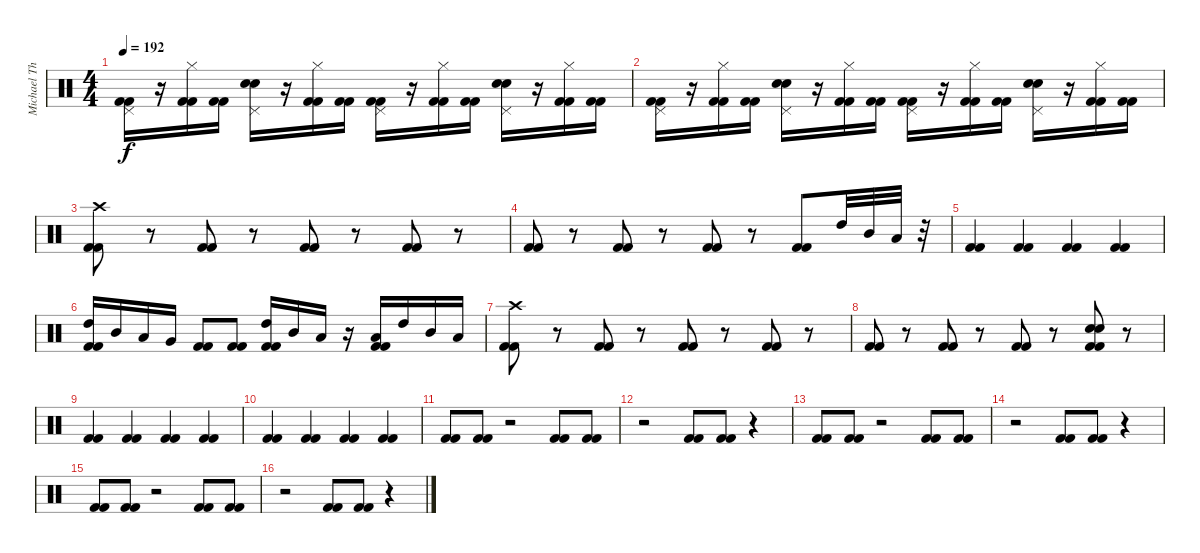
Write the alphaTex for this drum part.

\track ("Michael Thomas" "Michael Th") {instrument percussion}
\staff {score}
\articulation defaults
\ts (4 4)
\tempo 192
\clef neutral
\ks c
("Pedal Hi-Hat (hit)" "Kick (hit) 2" "Kick (hit) 2").16{dy f} r.16 ("Hi-Hat (closed)" "Kick (hit) 2" "Kick (hit) 2").16 ("Kick (hit) 2" "Kick (hit) 2").16 ("Pedal Hi-Hat (hit)" "Snare (hit) 2" "Electric Snare (hit)").16 r.16 ("Hi-Hat (closed)" "Kick (hit) 2" "Kick (hit) 2").16 ("Kick (hit) 2" "Kick (hit) 2").16 ("Pedal Hi-Hat (hit)" "Kick (hit) 2" "Kick (hit) 2").16 r.16 ("Hi-Hat (closed)" "Kick (hit) 2" "Kick (hit) 2").16 ("Kick (hit) 2" "Kick (hit) 2").16 ("Pedal Hi-Hat (hit)" "Snare (hit) 2" "Electric Snare (hit)").16 r.16 ("Hi-Hat (closed)" "Kick (hit) 2" "Kick (hit) 2").16 ("Kick (hit) 2" "Kick (hit) 2").16 |
("Pedal Hi-Hat (hit)" "Kick (hit) 2" "Kick (hit) 2").16 r.16 ("Hi-Hat (closed)" "Kick (hit) 2" "Kick (hit) 2").16 ("Kick (hit) 2" "Kick (hit) 2").16 ("Pedal Hi-Hat (hit)" "Snare (hit) 2" "Electric Snare (hit)").16 r.16 ("Hi-Hat (closed)" "Kick (hit) 2" "Kick (hit) 2").16 ("Kick (hit) 2" "Kick (hit) 2").16 ("Pedal Hi-Hat (hit)" "Kick (hit) 2" "Kick (hit) 2").16 r.16 ("Hi-Hat (closed)" "Kick (hit) 2" "Kick (hit) 2").16 ("Kick (hit) 2" "Kick (hit) 2").16 ("Pedal Hi-Hat (hit)" "Snare (hit) 2" "Electric Snare (hit)").16 r.16 ("Hi-Hat (closed)" "Kick (hit) 2" "Kick (hit) 2").16 ("Kick (hit) 2" "Kick (hit) 2").16 |
("Crash high (hit)" "Kick (hit) 2" "Kick (hit) 2").8 r.8 ("Kick (hit) 2" "Kick (hit) 2").8 r.8 ("Kick (hit) 2" "Kick (hit) 2").8 r.8 ("Kick (hit) 2" "Kick (hit) 2").8 r.8 |
("Kick (hit) 2" "Kick (hit) 2").8 r.8 ("Kick (hit) 2" "Kick (hit) 2").8 r.8 ("Kick (hit) 2" "Kick (hit) 2").8 r.8 ("Kick (hit) 2" "Kick (hit) 2").8 "High Tom (hit)".32 "Mid Tom (hit)".32 "Low Tom (hit)".32 r.32 |
("Kick (hit) 2" "Kick (hit) 2").4 ("Kick (hit) 2" "Kick (hit) 2").4 ("Kick (hit) 2" "Kick (hit) 2").4 ("Kick (hit) 2" "Kick (hit) 2").4 |
("High Tom (hit)" "Kick (hit) 2" "Kick (hit) 2").16 "Mid Tom (hit)".16 "Low Tom (hit)".16 "Very Low Tom (hit)".16 ("Kick (hit) 2" "Kick (hit) 2").8 ("Kick (hit) 2" "Kick (hit) 2").8 ("High Tom (hit)" "Kick (hit) 2" "Kick (hit) 2").16 "Mid Tom (hit)".16 "Low Tom (hit)".16 r.16 ("Low Floor Tom (hit)" "Kick (hit) 2" "Kick (hit) 2").16 "High Tom (hit)".16 "Mid Tom (hit)".16 "Low Tom (hit)".16 |
("Crash high (hit)" "Kick (hit) 2" "Kick (hit) 2").8 r.8 ("Kick (hit) 2" "Kick (hit) 2").8 r.8 ("Kick (hit) 2" "Kick (hit) 2").8 r.8 ("Kick (hit) 2" "Kick (hit) 2").8 r.8 |
("Kick (hit) 2" "Kick (hit) 2").8 r.8 ("Kick (hit) 2" "Kick (hit) 2").8 r.8 ("Kick (hit) 2" "Kick (hit) 2").8 r.8 ("Snare (hit) 2" "Electric Snare (hit)" "Kick (hit) 2" "Kick (hit) 2").8 r.8 |
("Kick (hit) 2" "Kick (hit) 2").4 ("Kick (hit) 2" "Kick (hit) 2").4 ("Kick (hit) 2" "Kick (hit) 2").4 ("Kick (hit) 2" "Kick (hit) 2").4 |
("Kick (hit) 2" "Kick (hit) 2").4 ("Kick (hit) 2" "Kick (hit) 2").4 ("Kick (hit) 2" "Kick (hit) 2").4 ("Kick (hit) 2" "Kick (hit) 2").4 |
("Kick (hit) 2" "Kick (hit) 2").8 ("Kick (hit) 2" "Kick (hit) 2").8 r.2 ("Kick (hit) 2" "Kick (hit) 2").8 ("Kick (hit) 2" "Kick (hit) 2").8 |
r.2 ("Kick (hit) 2" "Kick (hit) 2").8 ("Kick (hit) 2" "Kick (hit) 2").8 r.4 |
("Kick (hit) 2" "Kick (hit) 2").8 ("Kick (hit) 2" "Kick (hit) 2").8 r.2 ("Kick (hit) 2" "Kick (hit) 2").8 ("Kick (hit) 2" "Kick (hit) 2").8 |
r.2 ("Kick (hit) 2" "Kick (hit) 2").8 ("Kick (hit) 2" "Kick (hit) 2").8 r.4 |
("Kick (hit) 2" "Kick (hit) 2").8 ("Kick (hit) 2" "Kick (hit) 2").8 r.2 ("Kick (hit) 2" "Kick (hit) 2").8 ("Kick (hit) 2" "Kick (hit) 2").8 |
r.2 ("Kick (hit) 2" "Kick (hit) 2").8 ("Kick (hit) 2" "Kick (hit) 2").8 r.4
